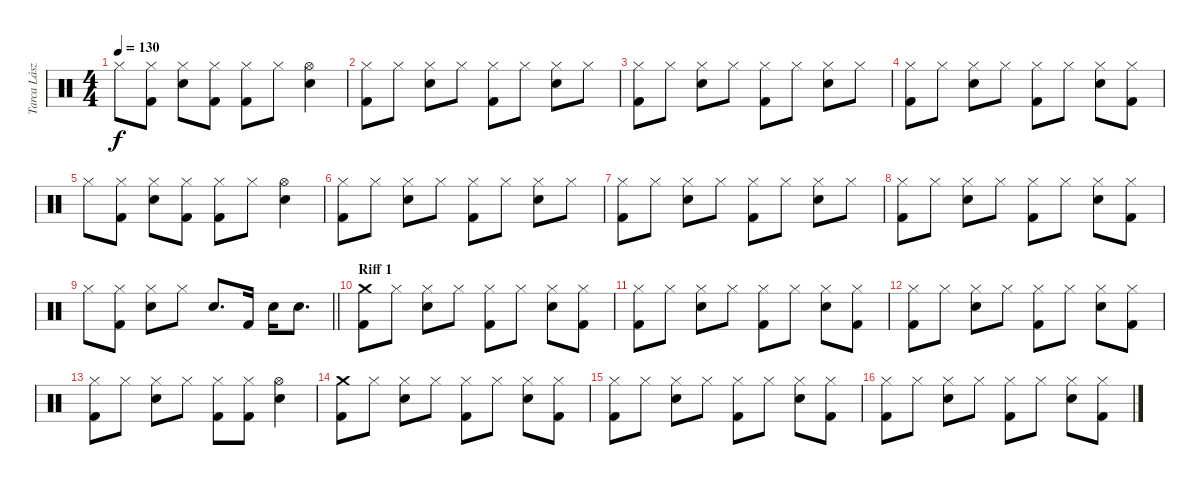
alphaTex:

\track ("Tarca László - dob" "Tarca Lász") {instrument percussion}
\staff {score}
\articulation defaults
\ts (4 4)
\tempo 130
\clef neutral
\ks c "Hi-Hat (closed)".8{dy f}
("Hi-Hat (closed)" "Kick (hit) 2").8 ("Hi-Hat (closed)" "Snare (hit) 2").8 ("Hi-Hat (closed)" "Kick (hit) 2").8 ("Hi-Hat (closed)" "Kick (hit) 2").8 "Hi-Hat (closed)".8 ("Hi-Hat (open)" "Snare (hit) 2").4 |
("Hi-Hat (closed)" "Kick (hit) 2").8 "Hi-Hat (closed)".8 ("Hi-Hat (closed)" "Snare (hit) 2").8 "Hi-Hat (closed)".8 ("Hi-Hat (closed)" "Kick (hit) 2").8 "Hi-Hat (closed)".8 ("Hi-Hat (closed)" "Snare (hit) 2").8 "Hi-Hat (closed)".8 |
("Hi-Hat (closed)" "Kick (hit) 2").8 "Hi-Hat (closed)".8 ("Hi-Hat (closed)" "Snare (hit) 2").8 "Hi-Hat (closed)".8 ("Hi-Hat (closed)" "Kick (hit) 2").8 "Hi-Hat (closed)".8 ("Hi-Hat (closed)" "Snare (hit) 2").8 "Hi-Hat (closed)".8 |
("Hi-Hat (closed)" "Kick (hit) 2").8 "Hi-Hat (closed)".8 ("Hi-Hat (closed)" "Snare (hit) 2").8 "Hi-Hat (closed)".8 ("Hi-Hat (closed)" "Kick (hit) 2").8 "Hi-Hat (closed)".8 ("Hi-Hat (closed)" "Snare (hit) 2").8 ("Hi-Hat (closed)" "Kick (hit) 2").8 |
"Hi-Hat (closed)".8 ("Hi-Hat (closed)" "Kick (hit) 2").8 ("Hi-Hat (closed)" "Snare (hit) 2").8 ("Hi-Hat (closed)" "Kick (hit) 2").8 ("Hi-Hat (closed)" "Kick (hit) 2").8 "Hi-Hat (closed)".8 ("Hi-Hat (open)" "Snare (hit) 2").4 |
("Hi-Hat (closed)" "Kick (hit) 2").8 "Hi-Hat (closed)".8 ("Hi-Hat (closed)" "Snare (hit) 2").8 "Hi-Hat (closed)".8 ("Hi-Hat (closed)" "Kick (hit) 2").8 "Hi-Hat (closed)".8 ("Hi-Hat (closed)" "Snare (hit) 2").8 "Hi-Hat (closed)".8 |
("Hi-Hat (closed)" "Kick (hit) 2").8 "Hi-Hat (closed)".8 ("Hi-Hat (closed)" "Snare (hit) 2").8 "Hi-Hat (closed)".8 ("Hi-Hat (closed)" "Kick (hit) 2").8 "Hi-Hat (closed)".8 ("Hi-Hat (closed)" "Snare (hit) 2").8 "Hi-Hat (closed)".8 |
("Hi-Hat (closed)" "Kick (hit) 2").8 "Hi-Hat (closed)".8 ("Hi-Hat (closed)" "Snare (hit) 2").8 "Hi-Hat (closed)".8 ("Hi-Hat (closed)" "Kick (hit) 2").8 "Hi-Hat (closed)".8 ("Hi-Hat (closed)" "Snare (hit) 2").8 ("Hi-Hat (closed)" "Kick (hit) 2").8 |
\barLineRight lightlight "Hi-Hat (closed)".8
("Hi-Hat (closed)" "Kick (hit) 2").8 ("Hi-Hat (closed)" "Snare (hit) 2").8 "Hi-Hat (closed)".8 "Snare (hit) 2".8{d} "Kick (hit) 2".16 "Snare (hit) 2".16 "Snare (hit) 2".8{d} |
\section ("" "Riff 1")
("Crash medium (hit)" "Kick (hit) 2").8 "Hi-Hat (closed)".8 ("Hi-Hat (closed)" "Snare (hit) 2").8 "Hi-Hat (closed)".8 ("Hi-Hat (closed)" "Kick (hit) 2").8 "Hi-Hat (closed)".8 ("Hi-Hat (closed)" "Snare (hit) 2").8 ("Hi-Hat (closed)" "Kick (hit) 2").8 |
("Hi-Hat (closed)" "Kick (hit) 2").8 "Hi-Hat (closed)".8 ("Hi-Hat (closed)" "Snare (hit) 2").8 "Hi-Hat (closed)".8 ("Hi-Hat (closed)" "Kick (hit) 2").8 "Hi-Hat (closed)".8 ("Hi-Hat (closed)" "Snare (hit) 2").8 ("Hi-Hat (closed)" "Kick (hit) 2").8 |
("Hi-Hat (closed)" "Kick (hit) 2").8 "Hi-Hat (closed)".8 ("Hi-Hat (closed)" "Snare (hit) 2").8 "Hi-Hat (closed)".8 ("Hi-Hat (closed)" "Kick (hit) 2").8 "Hi-Hat (closed)".8 ("Hi-Hat (closed)" "Snare (hit) 2").8 ("Hi-Hat (closed)" "Kick (hit) 2").8 |
("Hi-Hat (closed)" "Kick (hit) 2").8 "Hi-Hat (closed)".8 ("Hi-Hat (closed)" "Snare (hit) 2").8 "Hi-Hat (closed)".8 ("Hi-Hat (closed)" "Kick (hit) 2").8 ("Hi-Hat (closed)" "Kick (hit) 2").8 ("Hi-Hat (open)" "Snare (hit) 2").4 |
("Crash medium (hit)" "Kick (hit) 2").8 "Hi-Hat (closed)".8 ("Hi-Hat (closed)" "Snare (hit) 2").8 "Hi-Hat (closed)".8 ("Hi-Hat (closed)" "Kick (hit) 2").8 "Hi-Hat (closed)".8 ("Hi-Hat (closed)" "Snare (hit) 2").8 ("Hi-Hat (closed)" "Kick (hit) 2").8 |
("Hi-Hat (closed)" "Kick (hit) 2").8 "Hi-Hat (closed)".8 ("Hi-Hat (closed)" "Snare (hit) 2").8 "Hi-Hat (closed)".8 ("Hi-Hat (closed)" "Kick (hit) 2").8 "Hi-Hat (closed)".8 ("Hi-Hat (closed)" "Snare (hit) 2").8 ("Hi-Hat (closed)" "Kick (hit) 2").8 |
("Hi-Hat (closed)" "Kick (hit) 2").8 "Hi-Hat (closed)".8 ("Hi-Hat (closed)" "Snare (hit) 2").8 "Hi-Hat (closed)".8 ("Hi-Hat (closed)" "Kick (hit) 2").8 "Hi-Hat (closed)".8 ("Hi-Hat (closed)" "Snare (hit) 2").8 ("Hi-Hat (closed)" "Kick (hit) 2").8
